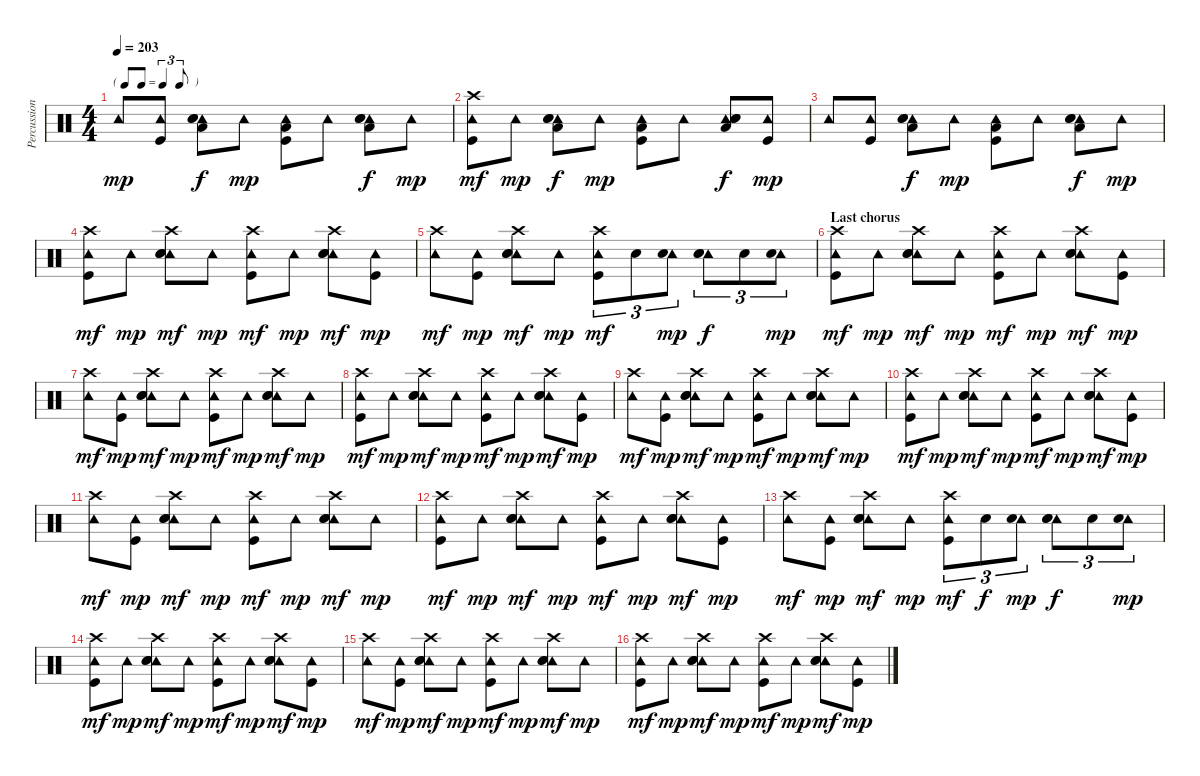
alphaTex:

\track ("Percussion" "Percussion") {instrument percussion}
\staff {score}
\articulation defaults
\ts (4 4)
\tf triplet8th
\tempo 203
\clef neutral
\ks c "Tambourine (hit)".8{dy mp}
("Tambourine (hit)" "Kick (hit)").8 ("Tambourine (hit)" "Hand Clap (hit)" "Snare (hit) 2" "Low Tom (hit)").8{dy f} "Tambourine (hit)".8{dy mp} ("Tambourine (hit)" "Low Tom (hit)" "Kick (hit)").8 "Tambourine (hit)".8 ("Tambourine (hit)" "Hand Clap (hit)" "Snare (hit) 2" "Low Tom (hit)").8{dy f} "Tambourine (hit)".8{dy mp} |
("Tambourine (hit)" "Crash high (hit)" "Kick (hit)").8{dy mf} "Tambourine (hit)".8{dy mp} ("Tambourine (hit)" "Hand Clap (hit)" "Snare (hit) 2" "Low Tom (hit)").8{dy f} "Tambourine (hit)".8{dy mp} ("Tambourine (hit)" "Low Tom (hit)" "Kick (hit)").8 "Tambourine (hit)".8 ("Tambourine (hit)" "Hand Clap (hit)" "Snare (hit) 2" "Low Tom (hit)").8{dy f} ("Tambourine (hit)" "Kick (hit)").8{dy mp} |
"Tambourine (hit)".8 ("Tambourine (hit)" "Kick (hit)").8 ("Tambourine (hit)" "Hand Clap (hit)" "Snare (hit) 2" "Low Tom (hit)").8{dy f} "Tambourine (hit)".8{dy mp} ("Tambourine (hit)" "Low Tom (hit)" "Kick (hit)").8 "Tambourine (hit)".8 ("Tambourine (hit)" "Hand Clap (hit)" "Snare (hit) 2" "Low Tom (hit)").8{dy f} "Tambourine (hit)".8{dy mp} |
("Tambourine (hit)" "Crash high (hit)" "Kick (hit)").8{dy mf} "Tambourine (hit)".8{dy mp} ("Tambourine (hit)" "Crash high (hit)" "Hand Clap (hit)" "Snare (hit) 2").8{dy mf} "Tambourine (hit)".8{dy mp} ("Tambourine (hit)" "Crash high (hit)" "Kick (hit)").8{dy mf} "Tambourine (hit)".8{dy mp} ("Tambourine (hit)" "Crash high (hit)" "Hand Clap (hit)" "Snare (hit) 2").8{dy mf} ("Tambourine (hit)" "Kick (hit)").8{dy mp} |
("Tambourine (hit)" "Crash high (hit)").8{dy mf} ("Tambourine (hit)" "Kick (hit)").8{dy mp} ("Tambourine (hit)" "Crash high (hit)" "Hand Clap (hit)" "Snare (hit) 2").8{dy mf} "Tambourine (hit)".8{dy mp} ("Tambourine (hit)" "Crash high (hit)" "Kick (hit)").8{tu (3 2) dy mf} "Snare (hit) 2".8{tu (3 2)} ("Tambourine (hit)" "Snare (hit) 2").8{tu (3 2) dy mp} ("Tambourine (hit)" "Hand Clap (hit)" "Snare (hit) 2").8{tu (3 2) dy f} "Snare (hit) 2".8{tu (3 2)} ("Tambourine (hit)" "Snare (hit) 2").8{tu (3 2) dy mp} |
\section ("" "Last chorus")
("Tambourine (hit)" "Crash high (hit)" "Kick (hit)").8{dy mf} "Tambourine (hit)".8{dy mp} ("Tambourine (hit)" "Crash high (hit)" "Hand Clap (hit)" "Snare (hit) 2").8{dy mf} "Tambourine (hit)".8{dy mp} ("Tambourine (hit)" "Crash high (hit)" "Kick (hit)").8{dy mf} "Tambourine (hit)".8{dy mp} ("Tambourine (hit)" "Crash high (hit)" "Hand Clap (hit)" "Snare (hit) 2").8{dy mf} ("Tambourine (hit)" "Kick (hit)").8{dy mp} |
("Tambourine (hit)" "Crash high (hit)").8{dy mf} ("Tambourine (hit)" "Kick (hit)").8{dy mp} ("Tambourine (hit)" "Crash high (hit)" "Hand Clap (hit)" "Snare (hit) 2").8{dy mf} "Tambourine (hit)".8{dy mp} ("Tambourine (hit)" "Crash high (hit)" "Kick (hit)").8{dy mf} "Tambourine (hit)".8{dy mp} ("Tambourine (hit)" "Crash high (hit)" "Hand Clap (hit)" "Snare (hit) 2").8{dy mf} "Tambourine (hit)".8{dy mp} |
("Tambourine (hit)" "Crash high (hit)" "Kick (hit)").8{dy mf} "Tambourine (hit)".8{dy mp} ("Tambourine (hit)" "Crash high (hit)" "Hand Clap (hit)" "Snare (hit) 2").8{dy mf} "Tambourine (hit)".8{dy mp} ("Tambourine (hit)" "Crash high (hit)" "Kick (hit)").8{dy mf} "Tambourine (hit)".8{dy mp} ("Tambourine (hit)" "Crash high (hit)" "Hand Clap (hit)" "Snare (hit) 2").8{dy mf} ("Tambourine (hit)" "Kick (hit)").8{dy mp} |
("Tambourine (hit)" "Crash high (hit)").8{dy mf} ("Tambourine (hit)" "Kick (hit)").8{dy mp} ("Tambourine (hit)" "Crash high (hit)" "Hand Clap (hit)" "Snare (hit) 2").8{dy mf} "Tambourine (hit)".8{dy mp} ("Tambourine (hit)" "Crash high (hit)" "Kick (hit)").8{dy mf} "Tambourine (hit)".8{dy mp} ("Tambourine (hit)" "Crash high (hit)" "Hand Clap (hit)" "Snare (hit) 2").8{dy mf} "Tambourine (hit)".8{dy mp} |
("Tambourine (hit)" "Crash high (hit)" "Kick (hit)").8{dy mf} "Tambourine (hit)".8{dy mp} ("Tambourine (hit)" "Crash high (hit)" "Hand Clap (hit)" "Snare (hit) 2").8{dy mf} "Tambourine (hit)".8{dy mp} ("Tambourine (hit)" "Crash high (hit)" "Kick (hit)").8{dy mf} "Tambourine (hit)".8{dy mp} ("Tambourine (hit)" "Crash high (hit)" "Hand Clap (hit)" "Snare (hit) 2").8{dy mf} ("Tambourine (hit)" "Kick (hit)").8{dy mp} |
("Tambourine (hit)" "Crash high (hit)").8{dy mf} ("Tambourine (hit)" "Kick (hit)").8{dy mp} ("Tambourine (hit)" "Crash high (hit)" "Hand Clap (hit)" "Snare (hit) 2").8{dy mf} "Tambourine (hit)".8{dy mp} ("Tambourine (hit)" "Crash high (hit)" "Kick (hit)").8{dy mf} "Tambourine (hit)".8{dy mp} ("Tambourine (hit)" "Crash high (hit)" "Hand Clap (hit)" "Snare (hit) 2").8{dy mf} "Tambourine (hit)".8{dy mp} |
("Tambourine (hit)" "Crash high (hit)" "Kick (hit)").8{dy mf} "Tambourine (hit)".8{dy mp} ("Tambourine (hit)" "Crash high (hit)" "Hand Clap (hit)" "Snare (hit) 2").8{dy mf} "Tambourine (hit)".8{dy mp} ("Tambourine (hit)" "Crash high (hit)" "Kick (hit)").8{dy mf} "Tambourine (hit)".8{dy mp} ("Tambourine (hit)" "Crash high (hit)" "Hand Clap (hit)" "Snare (hit) 2").8{dy mf} ("Tambourine (hit)" "Kick (hit)").8{dy mp} |
("Tambourine (hit)" "Crash high (hit)").8{dy mf} ("Tambourine (hit)" "Kick (hit)").8{dy mp} ("Tambourine (hit)" "Crash high (hit)" "Hand Clap (hit)" "Snare (hit) 2").8{dy mf} "Tambourine (hit)".8{dy mp} ("Tambourine (hit)" "Crash high (hit)" "Kick (hit)").8{tu (3 2) dy mf} "Snare (hit) 2".8{tu (3 2) dy f} ("Tambourine (hit)" "Snare (hit) 2").8{tu (3 2) dy mp} ("Tambourine (hit)" "Hand Clap (hit)" "Snare (hit) 2").8{tu (3 2) dy f} "Snare (hit) 2".8{tu (3 2)} ("Tambourine (hit)" "Snare (hit) 2").8{tu (3 2) dy mp} |
("Tambourine (hit)" "Crash high (hit)" "Kick (hit)").8{dy mf} "Tambourine (hit)".8{dy mp} ("Tambourine (hit)" "Crash high (hit)" "Hand Clap (hit)" "Snare (hit) 2").8{dy mf} "Tambourine (hit)".8{dy mp} ("Tambourine (hit)" "Crash high (hit)" "Kick (hit)").8{dy mf} "Tambourine (hit)".8{dy mp} ("Tambourine (hit)" "Crash high (hit)" "Hand Clap (hit)" "Snare (hit) 2").8{dy mf} ("Tambourine (hit)" "Kick (hit)").8{dy mp} |
("Tambourine (hit)" "Crash high (hit)").8{dy mf} ("Tambourine (hit)" "Kick (hit)").8{dy mp} ("Tambourine (hit)" "Crash high (hit)" "Hand Clap (hit)" "Snare (hit) 2").8{dy mf} "Tambourine (hit)".8{dy mp} ("Tambourine (hit)" "Crash high (hit)" "Kick (hit)").8{dy mf} "Tambourine (hit)".8{dy mp} ("Tambourine (hit)" "Crash high (hit)" "Hand Clap (hit)" "Snare (hit) 2").8{dy mf} "Tambourine (hit)".8{dy mp} |
("Tambourine (hit)" "Crash high (hit)" "Kick (hit)").8{dy mf} "Tambourine (hit)".8{dy mp} ("Tambourine (hit)" "Crash high (hit)" "Hand Clap (hit)" "Snare (hit) 2").8{dy mf} "Tambourine (hit)".8{dy mp} ("Tambourine (hit)" "Crash high (hit)" "Kick (hit)").8{dy mf} "Tambourine (hit)".8{dy mp} ("Tambourine (hit)" "Crash high (hit)" "Hand Clap (hit)" "Snare (hit) 2").8{dy mf} ("Tambourine (hit)" "Kick (hit)").8{dy mp}
